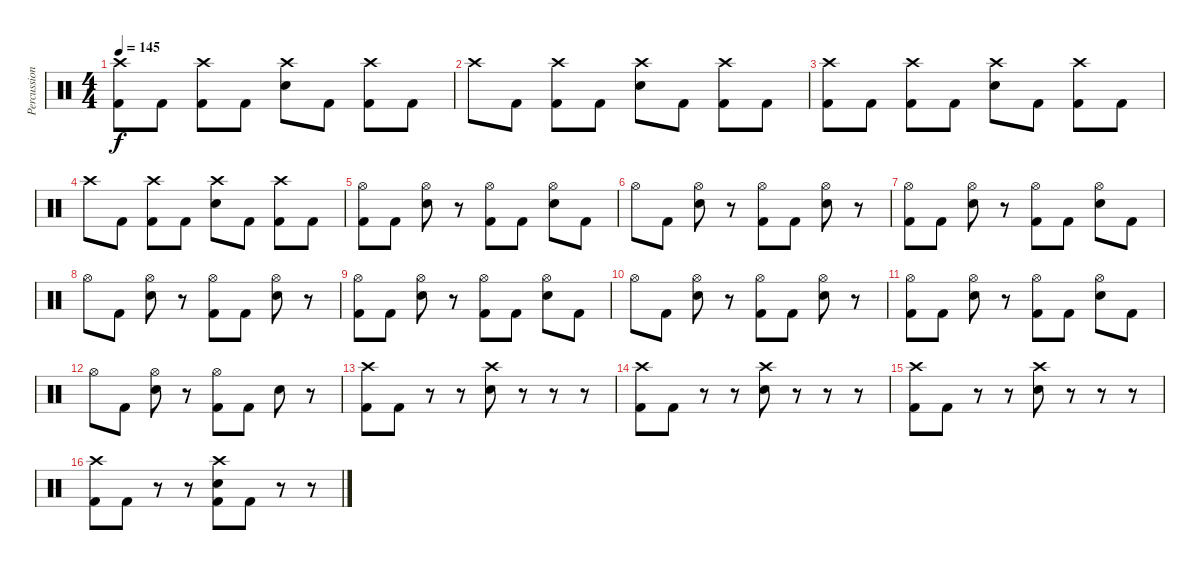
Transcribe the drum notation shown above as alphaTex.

\track ("Percussion" "Percussion") {instrument percussion}
\staff {score}
\articulation defaults
\ts (4 4)
\tempo 145
\clef neutral
\ks c
("Crash high (hit)" "Kick (hit) 2").8{dy f} "Kick (hit) 2".8 ("Crash high (hit)" "Kick (hit) 2").8 "Kick (hit) 2".8 ("Crash high (hit)" "Snare (hit) 2").8 "Kick (hit) 2".8 ("Crash high (hit)" "Kick (hit) 2").8 "Kick (hit) 2".8 |
"Crash high (hit)".8 "Kick (hit) 2".8 ("Crash high (hit)" "Kick (hit) 2").8 "Kick (hit) 2".8 ("Crash high (hit)" "Snare (hit) 2").8 "Kick (hit) 2".8 ("Crash high (hit)" "Kick (hit) 2").8 "Kick (hit) 2".8 |
("Crash high (hit)" "Kick (hit) 2").8 "Kick (hit) 2".8 ("Crash high (hit)" "Kick (hit) 2").8 "Kick (hit) 2".8 ("Crash high (hit)" "Snare (hit) 2").8 "Kick (hit) 2".8 ("Crash high (hit)" "Kick (hit) 2").8 "Kick (hit) 2".8 |
"Crash high (hit)".8 "Kick (hit) 2".8 ("Crash high (hit)" "Kick (hit) 2").8 "Kick (hit) 2".8 ("Crash high (hit)" "Snare (hit) 2").8 "Kick (hit) 2".8 ("Crash high (hit)" "Kick (hit) 2").8 "Kick (hit) 2".8 |
("Hi-Hat (open)" "Kick (hit) 2").8 "Kick (hit) 2".8 ("Hi-Hat (open)" "Snare (hit) 2").8 r.8 ("Hi-Hat (open)" "Kick (hit) 2").8 "Kick (hit) 2".8 ("Hi-Hat (open)" "Snare (hit) 2").8 "Kick (hit) 2".8 |
"Hi-Hat (open)".8 "Kick (hit) 2".8 ("Hi-Hat (open)" "Snare (hit) 2").8 r.8 ("Hi-Hat (open)" "Kick (hit) 2").8 "Kick (hit) 2".8 ("Hi-Hat (open)" "Snare (hit) 2").8 r.8 |
("Hi-Hat (open)" "Kick (hit) 2").8 "Kick (hit) 2".8 ("Hi-Hat (open)" "Snare (hit) 2").8 r.8 ("Hi-Hat (open)" "Kick (hit) 2").8 "Kick (hit) 2".8 ("Hi-Hat (open)" "Snare (hit) 2").8 "Kick (hit) 2".8 |
"Hi-Hat (open)".8 "Kick (hit) 2".8 ("Hi-Hat (open)" "Snare (hit) 2").8 r.8 ("Hi-Hat (open)" "Kick (hit) 2").8 "Kick (hit) 2".8 ("Hi-Hat (open)" "Snare (hit) 2").8 r.8 |
("Hi-Hat (open)" "Kick (hit) 2").8 "Kick (hit) 2".8 ("Hi-Hat (open)" "Snare (hit) 2").8 r.8 ("Hi-Hat (open)" "Kick (hit) 2").8 "Kick (hit) 2".8 ("Hi-Hat (open)" "Snare (hit) 2").8 "Kick (hit) 2".8 |
"Hi-Hat (open)".8 "Kick (hit) 2".8 ("Hi-Hat (open)" "Snare (hit) 2").8 r.8 ("Hi-Hat (open)" "Kick (hit) 2").8 "Kick (hit) 2".8 ("Hi-Hat (open)" "Snare (hit) 2").8 r.8 |
("Hi-Hat (open)" "Kick (hit) 2").8 "Kick (hit) 2".8 ("Hi-Hat (open)" "Snare (hit) 2").8 r.8 ("Hi-Hat (open)" "Kick (hit) 2").8 "Kick (hit) 2".8 ("Hi-Hat (open)" "Snare (hit) 2").8 "Kick (hit) 2".8 |
"Hi-Hat (open)".8 "Kick (hit) 2".8 ("Hi-Hat (open)" "Snare (hit) 2").8 r.8 ("Hi-Hat (open)" "Kick (hit) 2").8 "Kick (hit) 2".8 "Snare (hit) 2".8 r.8 |
("Crash high (hit)" "Kick (hit) 2").8 "Kick (hit) 2".8 r.8 r.8 ("Crash high (hit)" "Snare (hit) 2").8 r.8 r.8 r.8 |
("Crash high (hit)" "Kick (hit) 2").8 "Kick (hit) 2".8 r.8 r.8 ("Crash high (hit)" "Snare (hit) 2").8 r.8 r.8 r.8 |
("Crash high (hit)" "Kick (hit) 2").8 "Kick (hit) 2".8 r.8 r.8 ("Crash high (hit)" "Snare (hit) 2").8 r.8 r.8 r.8 |
("Crash high (hit)" "Kick (hit) 2").8 "Kick (hit) 2".8 r.8 r.8 ("Crash high (hit)" "Snare (hit) 2" "Kick (hit) 2").8 "Kick (hit) 2".8 r.8 r.8
